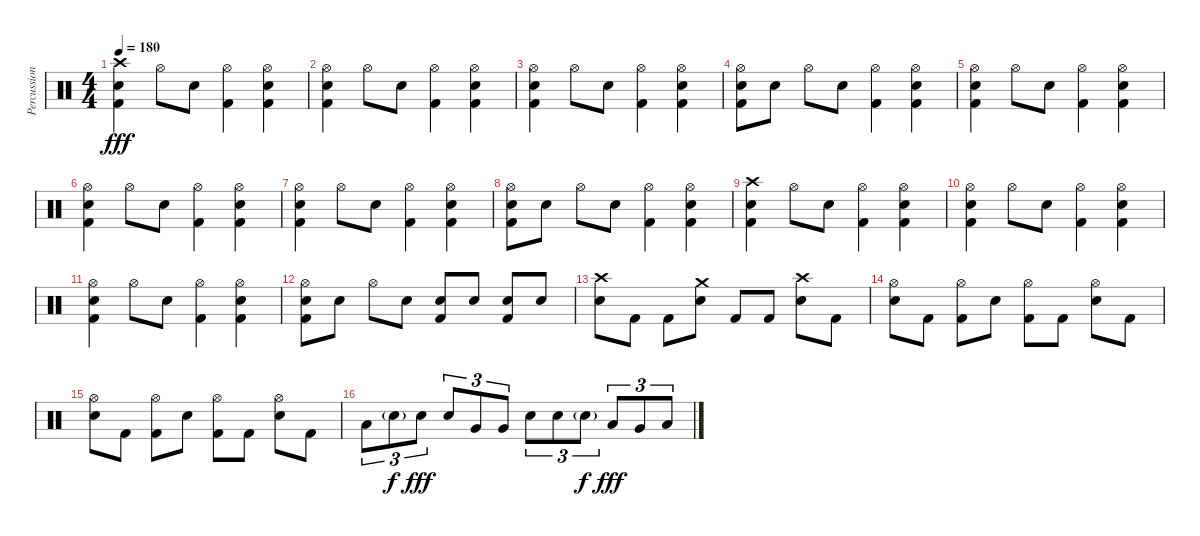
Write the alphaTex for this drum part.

\track ("Percussion" "Percussion") {instrument percussion}
\staff {score}
\articulation defaults
\ts (4 4)
\tempo 180
\clef neutral
\ks c
("Crash high (hit)" "Kick (hit) 2" "Electric Snare (hit)").4{dy fff} "Hi-Hat (open)".8 "Electric Snare (hit)".8 ("Hi-Hat (open)" "Kick (hit) 2").4 ("Hi-Hat (open)" "Kick (hit) 2" "Electric Snare (hit)").4 |
("Hi-Hat (open)" "Kick (hit) 2" "Electric Snare (hit)").4 "Hi-Hat (open)".8 "Electric Snare (hit)".8 ("Hi-Hat (open)" "Kick (hit) 2").4 ("Hi-Hat (open)" "Kick (hit) 2" "Electric Snare (hit)").4 |
("Hi-Hat (open)" "Kick (hit) 2" "Electric Snare (hit)").4 "Hi-Hat (open)".8 "Electric Snare (hit)".8 ("Hi-Hat (open)" "Kick (hit) 2").4 ("Hi-Hat (open)" "Kick (hit) 2" "Electric Snare (hit)").4 |
("Hi-Hat (open)" "Kick (hit) 2" "Electric Snare (hit)").8 "Electric Snare (hit)".8 "Hi-Hat (open)".8 "Electric Snare (hit)".8 ("Hi-Hat (open)" "Kick (hit) 2").4 ("Hi-Hat (open)" "Kick (hit) 2" "Electric Snare (hit)").4 |
("Hi-Hat (open)" "Kick (hit) 2" "Electric Snare (hit)").4 "Hi-Hat (open)".8 "Electric Snare (hit)".8 ("Hi-Hat (open)" "Kick (hit) 2").4 ("Hi-Hat (open)" "Kick (hit) 2" "Electric Snare (hit)").4 |
("Hi-Hat (open)" "Kick (hit) 2" "Electric Snare (hit)").4 "Hi-Hat (open)".8 "Electric Snare (hit)".8 ("Hi-Hat (open)" "Kick (hit) 2").4 ("Hi-Hat (open)" "Kick (hit) 2" "Electric Snare (hit)").4 |
("Hi-Hat (open)" "Kick (hit) 2" "Electric Snare (hit)").4 "Hi-Hat (open)".8 "Electric Snare (hit)".8 ("Hi-Hat (open)" "Kick (hit) 2").4 ("Hi-Hat (open)" "Kick (hit) 2" "Electric Snare (hit)").4 |
("Hi-Hat (open)" "Kick (hit) 2" "Electric Snare (hit)").8 "Electric Snare (hit)".8 "Hi-Hat (open)".8 "Electric Snare (hit)".8 ("Hi-Hat (open)" "Kick (hit) 2").4 ("Hi-Hat (open)" "Kick (hit) 2" "Electric Snare (hit)").4 |
("Crash high (hit)" "Kick (hit) 2" "Electric Snare (hit)").4 "Hi-Hat (open)".8 "Electric Snare (hit)".8 ("Hi-Hat (open)" "Kick (hit) 2").4 ("Hi-Hat (open)" "Kick (hit) 2" "Electric Snare (hit)").4 |
("Hi-Hat (open)" "Kick (hit) 2" "Electric Snare (hit)").4 "Hi-Hat (open)".8 "Electric Snare (hit)".8 ("Hi-Hat (open)" "Kick (hit) 2").4 ("Hi-Hat (open)" "Kick (hit) 2" "Electric Snare (hit)").4 |
("Hi-Hat (open)" "Kick (hit) 2" "Electric Snare (hit)").4 "Hi-Hat (open)".8 "Electric Snare (hit)".8 ("Hi-Hat (open)" "Kick (hit) 2").4 ("Hi-Hat (open)" "Kick (hit) 2" "Electric Snare (hit)").4 |
("Hi-Hat (open)" "Kick (hit) 2" "Electric Snare (hit)").8 "Electric Snare (hit)".8 "Hi-Hat (open)".8 "Electric Snare (hit)".8 ("Kick (hit) 2" "Electric Snare (hit)").8 "Electric Snare (hit)".8 ("Kick (hit) 2" "Electric Snare (hit)").8 "Electric Snare (hit)".8 |
("Crash high (hit)" "Electric Snare (hit)").8 "Kick (hit) 2".8 "Kick (hit) 2".8 ("Crash medium (hit)" "Electric Snare (hit)").8 "Kick (hit) 2".8 "Kick (hit) 2".8 ("Crash high (hit)" "Electric Snare (hit)").8 "Kick (hit) 2".8 |
("Hi-Hat (open)" "Electric Snare (hit)").8 "Kick (hit) 2".8 ("Hi-Hat (open)" "Kick (hit) 2").8 "Electric Snare (hit)".8 ("Hi-Hat (open)" "Kick (hit) 2").8 "Kick (hit) 2".8 ("Hi-Hat (open)" "Electric Snare (hit)").8 "Kick (hit) 2".8 |
("Hi-Hat (open)" "Electric Snare (hit)").8 "Kick (hit) 2".8 ("Hi-Hat (open)" "Kick (hit) 2").8 "Electric Snare (hit)".8 ("Hi-Hat (open)" "Kick (hit) 2").8 "Kick (hit) 2".8 ("Hi-Hat (open)" "Electric Snare (hit)").8 "Kick (hit) 2".8 |
"Low Tom (hit)".8{tu (3 2)} "Electric Snare (hit)"{g}.8{tu (3 2) dy f} "Electric Snare (hit)".8{tu (3 2) dy fff} "Electric Snare (hit)".8{tu (3 2)} "Very Low Tom (hit)".8{tu (3 2)} "Very Low Tom (hit)".8{tu (3 2)} "Electric Snare (hit)".8{tu (3 2)} "Electric Snare (hit)".8{tu (3 2)} "Electric Snare (hit)"{g}.8{tu (3 2) dy f} "Low Tom (hit)".8{tu (3 2) dy fff} "Very Low Tom (hit)".8{tu (3 2)} "Low Floor Tom (hit)".8{tu (3 2)}
